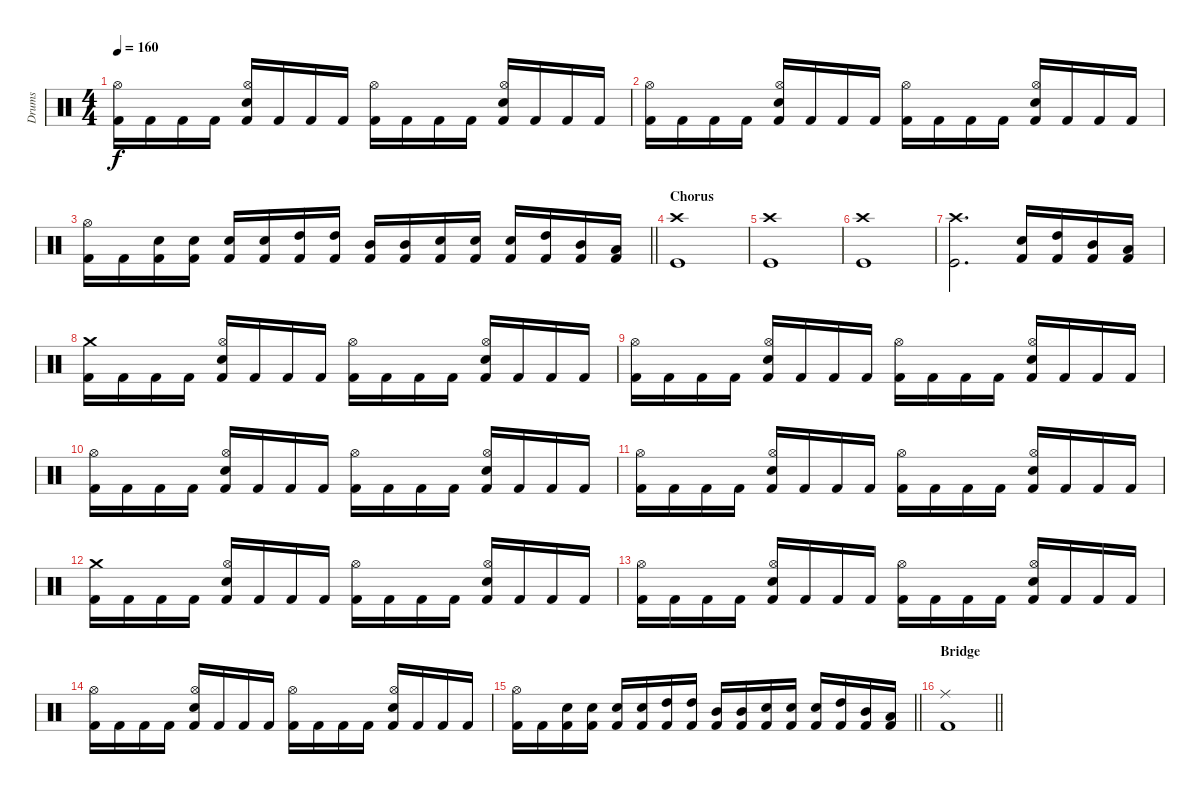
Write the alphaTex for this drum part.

\track ("Drums" "Drums") {instrument percussion}
\staff {score}
\articulation defaults
\ts (4 4)
\tempo 160
\clef neutral
\ks c
("Kick (hit) 2" "Hi-Hat (open)").16{dy f} "Kick (hit) 2".16 "Kick (hit) 2".16 "Kick (hit) 2".16 ("Kick (hit) 2" "Electric Snare (hit)" "Hi-Hat (open)").16 "Kick (hit) 2".16 "Kick (hit) 2".16 "Kick (hit) 2".16 ("Kick (hit) 2" "Hi-Hat (open)").16 "Kick (hit) 2".16 "Kick (hit) 2".16 "Kick (hit) 2".16 ("Kick (hit) 2" "Electric Snare (hit)" "Hi-Hat (open)").16 "Kick (hit) 2".16 "Kick (hit) 2".16 "Kick (hit) 2".16 |
("Kick (hit) 2" "Hi-Hat (open)").16 "Kick (hit) 2".16 "Kick (hit) 2".16 "Kick (hit) 2".16 ("Kick (hit) 2" "Electric Snare (hit)" "Hi-Hat (open)").16 "Kick (hit) 2".16 "Kick (hit) 2".16 "Kick (hit) 2".16 ("Kick (hit) 2" "Hi-Hat (open)").16 "Kick (hit) 2".16 "Kick (hit) 2".16 "Kick (hit) 2".16 ("Kick (hit) 2" "Electric Snare (hit)" "Hi-Hat (open)").16 "Kick (hit) 2".16 "Kick (hit) 2".16 "Kick (hit) 2".16 |
\barLineRight lightlight
("Kick (hit) 2" "Hi-Hat (open)").16 "Kick (hit) 2".16 ("Kick (hit) 2" "Electric Snare (hit)").16 ("Kick (hit) 2" "Electric Snare (hit)").16 ("Kick (hit) 2" "Electric Snare (hit)").16 ("Kick (hit) 2" "Electric Snare (hit)").16 ("Kick (hit) 2" "High Tom (hit)").16 ("Kick (hit) 2" "High Tom (hit)").16 ("Kick (hit) 2" "Mid Tom (hit)").16 ("Kick (hit) 2" "Mid Tom (hit)").16 ("Kick (hit) 2" "Electric Snare (hit)").16 ("Kick (hit) 2" "Electric Snare (hit)").16 ("Kick (hit) 2" "Electric Snare (hit)").16 ("Kick (hit) 2" "High Tom (hit)").16 ("Kick (hit) 2" "Mid Tom (hit)").16 ("Kick (hit) 2" "Low Tom (hit)").16 |
\section ("" "Chorus")
("Crash high (hit)" "Kick (hit)").1 |
("Crash high (hit)" "Kick (hit)").1 |
("Crash high (hit)" "Kick (hit)").1 |
("Crash high (hit)" "Kick (hit)").2{d} ("Kick (hit) 2" "Electric Snare (hit)").16 ("Kick (hit) 2" "High Tom (hit)").16 ("Kick (hit) 2" "Mid Tom (hit)").16 ("Kick (hit) 2" "Low Tom (hit)").16 |
("Kick (hit) 2" "Crash medium (hit)").16 "Kick (hit) 2".16 "Kick (hit) 2".16 "Kick (hit) 2".16 ("Kick (hit) 2" "Electric Snare (hit)" "Hi-Hat (open)").16 "Kick (hit) 2".16 "Kick (hit) 2".16 "Kick (hit) 2".16 ("Kick (hit) 2" "Hi-Hat (open)").16 "Kick (hit) 2".16 "Kick (hit) 2".16 "Kick (hit) 2".16 ("Kick (hit) 2" "Electric Snare (hit)" "Hi-Hat (open)").16 "Kick (hit) 2".16 "Kick (hit) 2".16 "Kick (hit) 2".16 |
("Kick (hit) 2" "Hi-Hat (open)").16 "Kick (hit) 2".16 "Kick (hit) 2".16 "Kick (hit) 2".16 ("Kick (hit) 2" "Electric Snare (hit)" "Hi-Hat (open)").16 "Kick (hit) 2".16 "Kick (hit) 2".16 "Kick (hit) 2".16 ("Kick (hit) 2" "Hi-Hat (open)").16 "Kick (hit) 2".16 "Kick (hit) 2".16 "Kick (hit) 2".16 ("Kick (hit) 2" "Electric Snare (hit)" "Hi-Hat (open)").16 "Kick (hit) 2".16 "Kick (hit) 2".16 "Kick (hit) 2".16 |
("Kick (hit) 2" "Hi-Hat (open)").16 "Kick (hit) 2".16 "Kick (hit) 2".16 "Kick (hit) 2".16 ("Kick (hit) 2" "Electric Snare (hit)" "Hi-Hat (open)").16 "Kick (hit) 2".16 "Kick (hit) 2".16 "Kick (hit) 2".16 ("Kick (hit) 2" "Hi-Hat (open)").16 "Kick (hit) 2".16 "Kick (hit) 2".16 "Kick (hit) 2".16 ("Kick (hit) 2" "Electric Snare (hit)" "Hi-Hat (open)").16 "Kick (hit) 2".16 "Kick (hit) 2".16 "Kick (hit) 2".16 |
("Kick (hit) 2" "Hi-Hat (open)").16 "Kick (hit) 2".16 "Kick (hit) 2".16 "Kick (hit) 2".16 ("Kick (hit) 2" "Electric Snare (hit)" "Hi-Hat (open)").16 "Kick (hit) 2".16 "Kick (hit) 2".16 "Kick (hit) 2".16 ("Kick (hit) 2" "Hi-Hat (open)").16 "Kick (hit) 2".16 "Kick (hit) 2".16 "Kick (hit) 2".16 ("Kick (hit) 2" "Electric Snare (hit)" "Hi-Hat (open)").16 "Kick (hit) 2".16 "Kick (hit) 2".16 "Kick (hit) 2".16 |
("Kick (hit) 2" "Crash medium (hit)").16 "Kick (hit) 2".16 "Kick (hit) 2".16 "Kick (hit) 2".16 ("Kick (hit) 2" "Electric Snare (hit)" "Hi-Hat (open)").16 "Kick (hit) 2".16 "Kick (hit) 2".16 "Kick (hit) 2".16 ("Kick (hit) 2" "Hi-Hat (open)").16 "Kick (hit) 2".16 "Kick (hit) 2".16 "Kick (hit) 2".16 ("Kick (hit) 2" "Electric Snare (hit)" "Hi-Hat (open)").16 "Kick (hit) 2".16 "Kick (hit) 2".16 "Kick (hit) 2".16 |
("Kick (hit) 2" "Hi-Hat (open)").16 "Kick (hit) 2".16 "Kick (hit) 2".16 "Kick (hit) 2".16 ("Kick (hit) 2" "Electric Snare (hit)" "Hi-Hat (open)").16 "Kick (hit) 2".16 "Kick (hit) 2".16 "Kick (hit) 2".16 ("Kick (hit) 2" "Hi-Hat (open)").16 "Kick (hit) 2".16 "Kick (hit) 2".16 "Kick (hit) 2".16 ("Kick (hit) 2" "Electric Snare (hit)" "Hi-Hat (open)").16 "Kick (hit) 2".16 "Kick (hit) 2".16 "Kick (hit) 2".16 |
("Kick (hit) 2" "Hi-Hat (open)").16 "Kick (hit) 2".16 "Kick (hit) 2".16 "Kick (hit) 2".16 ("Kick (hit) 2" "Electric Snare (hit)" "Hi-Hat (open)").16 "Kick (hit) 2".16 "Kick (hit) 2".16 "Kick (hit) 2".16 ("Kick (hit) 2" "Hi-Hat (open)").16 "Kick (hit) 2".16 "Kick (hit) 2".16 "Kick (hit) 2".16 ("Kick (hit) 2" "Electric Snare (hit)" "Hi-Hat (open)").16 "Kick (hit) 2".16 "Kick (hit) 2".16 "Kick (hit) 2".16 |
\barLineRight lightlight
("Kick (hit) 2" "Hi-Hat (open)").16 "Kick (hit) 2".16 ("Kick (hit) 2" "Electric Snare (hit)").16 ("Kick (hit) 2" "Electric Snare (hit)").16 ("Kick (hit) 2" "Electric Snare (hit)").16 ("Kick (hit) 2" "Electric Snare (hit)").16 ("Kick (hit) 2" "High Tom (hit)").16 ("Kick (hit) 2" "High Tom (hit)").16 ("Kick (hit) 2" "Mid Tom (hit)").16 ("Kick (hit) 2" "Mid Tom (hit)").16 ("Kick (hit) 2" "Electric Snare (hit)").16 ("Kick (hit) 2" "Electric Snare (hit)").16 ("Kick (hit) 2" "Electric Snare (hit)").16 ("Kick (hit) 2" "High Tom (hit)").16 ("Kick (hit) 2" "Mid Tom (hit)").16 ("Kick (hit) 2" "Low Tom (hit)").16 |
\section ("" "Bridge ")
\barLineRight lightlight
("Kick (hit) 2" "Ride (middle)").1
